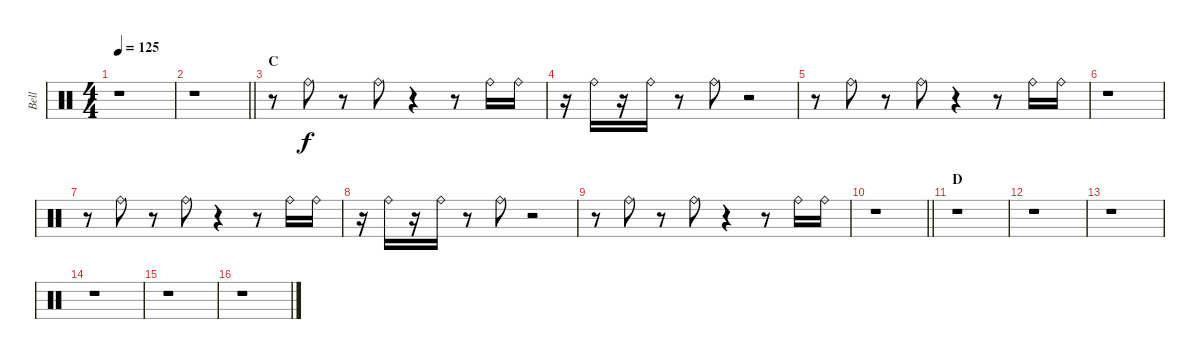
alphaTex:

\track ("Bell" "Bell") {instrument percussion}
\staff {score}
\articulation defaults
\ts (4 4)
\tempo 125
\clef neutral
\ks c
r.1{dy f} |
\barLineRight lightlight
r.1 |
\section ("" "C")
r.8 "Ride (bell)".8 r.8 "Ride (bell)".8 r.4 r.8 "Ride (bell)".16 "Ride (bell)".16 |
r.16 "Ride (bell)".16 r.16 "Ride (bell)".16 r.8 "Ride (bell)".8 r.2 |
r.8 "Ride (bell)".8 r.8 "Ride (bell)".8 r.4 r.8 "Ride (bell)".16 "Ride (bell)".16 |
r.1 |
r.8 "Ride (bell)".8 r.8 "Ride (bell)".8 r.4 r.8 "Ride (bell)".16 "Ride (bell)".16 |
r.16 "Ride (bell)".16 r.16 "Ride (bell)".16 r.8 "Ride (bell)".8 r.2 |
r.8 "Ride (bell)".8 r.8 "Ride (bell)".8 r.4 r.8 "Ride (bell)".16 "Ride (bell)".16 |
\barLineRight lightlight
r.1 |
\section ("" "D")
r.1 |
r.1 |
r.1 |
r.1 |
r.1 |
r.1
